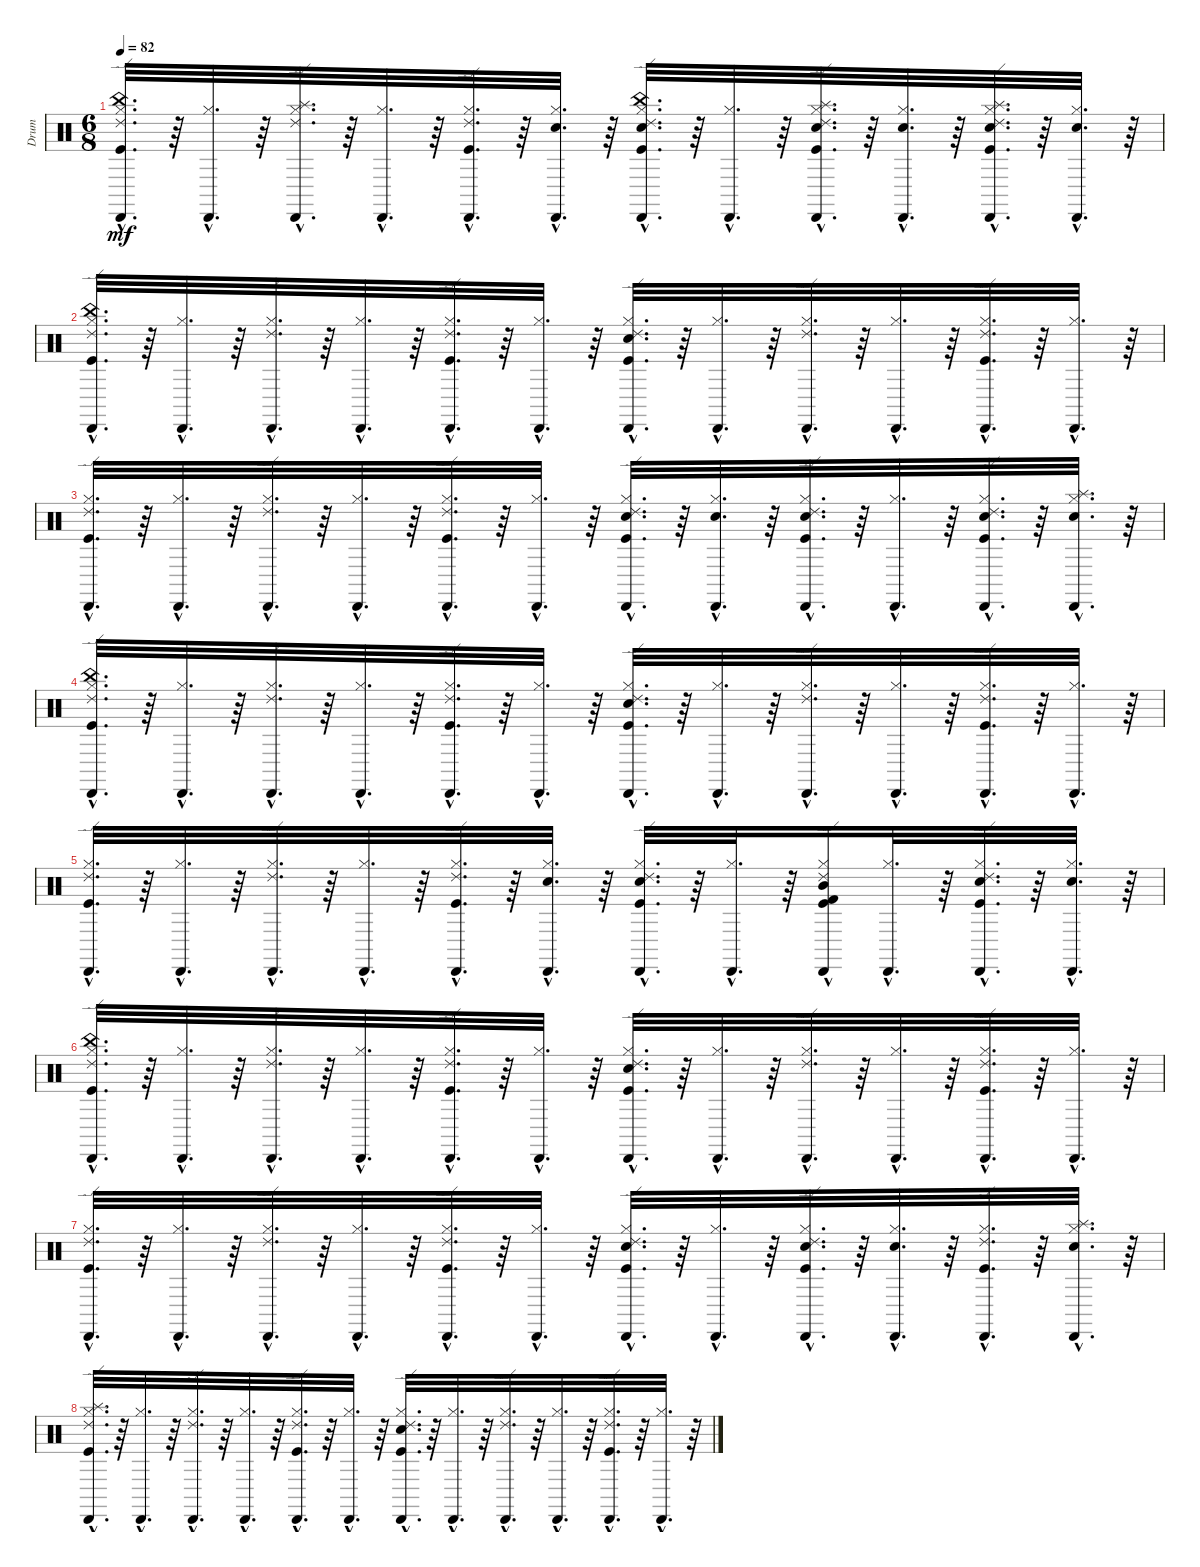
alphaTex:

\track ("Drum" "Drum") {instrument percussion}
\staff {score}
\articulation defaults
\ts (6 8)
\tempo 82
\clef neutral
\ks c
("China (hit)"{hac} "Hi-Hat (closed)"{hac} "Kick (hit)"{hac} "Ride (edge) 2"{hac} "Cabasa (hit)"{hac}).32{d dy mf} r.64 ("Hi-Hat (closed)"{hac} "Cabasa (hit)"{hac}).32{d} r.64 ("Splash (hit)"{hac} "Hi-Hat (closed)"{hac} "Ride (edge) 2"{hac} "Cabasa (hit)"{hac}).32{d} r.64 ("Hi-Hat (closed)"{hac} "Cabasa (hit)"{hac}).32{d} r.64 ("Hi-Hat (closed)"{hac} "Kick (hit)"{hac} "Ride (edge) 2"{hac} "Cabasa (hit)"{hac}).32{d} r.64 ("Hi-Hat (closed)"{hac} "Snare (hit) 2"{hac} "Cabasa (hit)"{hac}).32{d} r.64 ("China (hit)"{hac} "Hi-Hat (closed)"{hac} "Snare (hit) 2"{hac} "Kick (hit)"{hac} "Ride (edge) 2"{hac} "Cabasa (hit)"{hac}).32{d} r.64 ("Hi-Hat (closed)"{hac} "Cabasa (hit)"{hac}).32{d} r.64 ("Splash (hit)"{hac} "Hi-Hat (closed)"{hac} "Snare (hit) 2"{hac} "Kick (hit)"{hac} "Ride (edge) 2"{hac} "Cabasa (hit)"{hac}).32{d} r.64 ("Hi-Hat (closed)"{hac} "Snare (hit) 2"{hac} "Cabasa (hit)"{hac}).32{d} r.64 ("Hi-Hat (closed)"{hac} "Kick (hit)"{hac} "Splash (hit)"{hac} "Snare (hit) 2"{hac} "Ride (edge) 2"{hac} "Cabasa (hit)"{hac}).32{d} r.64 ("Hi-Hat (closed)"{hac} "Snare (hit) 2"{hac} "Cabasa (hit)"{hac}).32{d} r.64 |
("Ride (edge) 2"{hac} "Cabasa (hit)"{hac} "Kick (hit)"{hac} "Hi-Hat (closed)"{hac} "China (hit)"{hac}).32{d} r.64 ("Cabasa (hit)"{hac} "Hi-Hat (closed)"{hac}).32{d} r.64 ("Ride (edge) 2"{hac} "Cabasa (hit)"{hac} "Hi-Hat (closed)"{hac}).32{d} r.64 ("Cabasa (hit)"{hac} "Hi-Hat (closed)"{hac}).32{d} r.64 ("Ride (edge) 2"{hac} "Cabasa (hit)"{hac} "Kick (hit)"{hac} "Hi-Hat (closed)"{hac}).32{d} r.64 ("Cabasa (hit)"{hac} "Hi-Hat (closed)"{hac}).32{d} r.64 ("Ride (edge) 2"{hac} "Cabasa (hit)"{hac} "Snare (hit) 2"{hac} "Hi-Hat (closed)"{hac} "Kick (hit)"{hac}).32{d} r.64 ("Cabasa (hit)"{hac} "Hi-Hat (closed)"{hac}).32{d} r.64 ("Ride (edge) 2"{hac} "Cabasa (hit)"{hac} "Hi-Hat (closed)"{hac}).32{d} r.64 ("Cabasa (hit)"{hac} "Hi-Hat (closed)"{hac}).32{d} r.64 ("Ride (edge) 2"{hac} "Cabasa (hit)"{hac} "Kick (hit)"{hac} "Hi-Hat (closed)"{hac}).32{d} r.64 ("Cabasa (hit)"{hac} "Hi-Hat (closed)"{hac}).32{d} r.64 |
("Cabasa (hit)"{hac} "Ride (edge) 2"{hac} "Hi-Hat (closed)"{hac} "Kick (hit)"{hac}).32{d} r.64 ("Cabasa (hit)"{hac} "Hi-Hat (closed)"{hac}).32{d} r.64 ("Cabasa (hit)"{hac} "Ride (edge) 2"{hac} "Hi-Hat (closed)"{hac}).32{d} r.64 ("Cabasa (hit)"{hac} "Hi-Hat (closed)"{hac}).32{d} r.64 ("Cabasa (hit)"{hac} "Ride (edge) 2"{hac} "Hi-Hat (closed)"{hac} "Kick (hit)"{hac}).32{d} r.64 ("Cabasa (hit)"{hac} "Hi-Hat (closed)"{hac}).32{d} r.64 ("Cabasa (hit)"{hac} "Ride (edge) 2"{hac} "Hi-Hat (closed)"{hac} "Snare (hit) 2"{hac} "Kick (hit)"{hac}).32{d} r.64 ("Cabasa (hit)"{hac} "Snare (hit) 2"{hac} "Hi-Hat (closed)"{hac}).32{d} r.64 ("Cabasa (hit)"{hac} "Ride (edge) 2"{hac} "Hi-Hat (closed)"{hac} "Kick (hit)"{hac} "Snare (hit) 2"{hac}).32{d} r.64 ("Cabasa (hit)"{hac} "Hi-Hat (closed)"{hac}).32{d} r.64 ("Cabasa (hit)"{hac} "Ride (edge) 2"{hac} "Hi-Hat (closed)"{hac} "Snare (hit) 2"{hac} "Kick (hit)"{hac}).32{d} r.64 ("Cabasa (hit)"{hac} "Splash (hit)"{hac} "Hi-Hat (closed)"{hac} "Snare (hit) 2"{hac}).32{d} r.64 |
("Ride (edge) 2"{hac} "Cabasa (hit)"{hac} "Kick (hit)"{hac} "Hi-Hat (closed)"{hac} "China (hit)"{hac}).32{d} r.64 ("Cabasa (hit)"{hac} "Hi-Hat (closed)"{hac}).32{d} r.64 ("Ride (edge) 2"{hac} "Cabasa (hit)"{hac} "Hi-Hat (closed)"{hac}).32{d} r.64 ("Cabasa (hit)"{hac} "Hi-Hat (closed)"{hac}).32{d} r.64 ("Ride (edge) 2"{hac} "Cabasa (hit)"{hac} "Kick (hit)"{hac} "Hi-Hat (closed)"{hac}).32{d} r.64 ("Cabasa (hit)"{hac} "Hi-Hat (closed)"{hac}).32{d} r.64 ("Ride (edge) 2"{hac} "Cabasa (hit)"{hac} "Snare (hit) 2"{hac} "Hi-Hat (closed)"{hac} "Kick (hit)"{hac}).32{d} r.64 ("Cabasa (hit)"{hac} "Hi-Hat (closed)"{hac}).32{d} r.64 ("Ride (edge) 2"{hac} "Cabasa (hit)"{hac} "Hi-Hat (closed)"{hac}).32{d} r.64 ("Cabasa (hit)"{hac} "Hi-Hat (closed)"{hac}).32{d} r.64 ("Ride (edge) 2"{hac} "Cabasa (hit)"{hac} "Kick (hit)"{hac} "Hi-Hat (closed)"{hac}).32{d} r.64 ("Cabasa (hit)"{hac} "Hi-Hat (closed)"{hac}).32{d} r.64 |
("Cabasa (hit)"{hac} "Ride (edge) 2"{hac} "Hi-Hat (closed)"{hac} "Kick (hit)"{hac}).32{d} r.64 ("Cabasa (hit)"{hac} "Hi-Hat (closed)"{hac}).32{d} r.64 ("Cabasa (hit)"{hac} "Ride (edge) 2"{hac} "Hi-Hat (closed)"{hac}).32{d} r.64 ("Cabasa (hit)"{hac} "Hi-Hat (closed)"{hac}).32{d} r.64 ("Cabasa (hit)"{hac} "Ride (edge) 2"{hac} "Hi-Hat (closed)"{hac} "Kick (hit)"{hac}).32{d} r.64 ("Cabasa (hit)"{hac} "Hi-Hat (closed)"{hac} "Snare (hit) 2"{hac}).32{d} r.64 ("Cabasa (hit)"{hac} "Ride (edge) 2"{hac} "Hi-Hat (closed)"{hac} "Snare (hit) 2"{hac} "Kick (hit)"{hac}).32{d} r.64 ("Cabasa (hit)"{hac} "Hi-Hat (closed)"{hac}).32{d} r.64 ("Cabasa (hit)"{hac} "Ride (edge) 2"{hac} "Kick (hit) 2" "Hi-Hat (closed)"{hac} "Mid Tom (hit)"{hac} "Kick (hit)"{hac}).16 ("Cabasa (hit)"{hac} "Hi-Hat (closed)"{hac}).32{d} r.64 ("Cabasa (hit)"{hac} "Ride (edge) 2"{hac} "Hi-Hat (closed)"{hac} "Kick (hit)"{hac} "Snare (hit) 2"{hac}).32{d} r.64 ("Cabasa (hit)"{hac} "Hi-Hat (closed)"{hac} "Snare (hit) 2"{hac}).32{d} r.64 |
("China (hit)"{hac} "Hi-Hat (closed)"{hac} "Kick (hit)"{hac} "Cabasa (hit)"{hac} "Ride (edge) 2"{hac}).32{d} r.64 ("Hi-Hat (closed)"{hac} "Cabasa (hit)"{hac}).32{d} r.64 ("Hi-Hat (closed)"{hac} "Cabasa (hit)"{hac} "Ride (edge) 2"{hac}).32{d} r.64 ("Hi-Hat (closed)"{hac} "Cabasa (hit)"{hac}).32{d} r.64 ("Hi-Hat (closed)"{hac} "Kick (hit)"{hac} "Cabasa (hit)"{hac} "Ride (edge) 2"{hac}).32{d} r.64 ("Hi-Hat (closed)"{hac} "Cabasa (hit)"{hac}).32{d} r.64 ("Kick (hit)"{hac} "Hi-Hat (closed)"{hac} "Snare (hit) 2"{hac} "Cabasa (hit)"{hac} "Ride (edge) 2"{hac}).32{d} r.64 ("Hi-Hat (closed)"{hac} "Cabasa (hit)"{hac}).32{d} r.64 ("Hi-Hat (closed)"{hac} "Cabasa (hit)"{hac} "Ride (edge) 2"{hac}).32{d} r.64 ("Hi-Hat (closed)"{hac} "Cabasa (hit)"{hac}).32{d} r.64 ("Hi-Hat (closed)"{hac} "Kick (hit)"{hac} "Cabasa (hit)"{hac} "Ride (edge) 2"{hac}).32{d} r.64 ("Hi-Hat (closed)"{hac} "Cabasa (hit)"{hac}).32{d} r.64 |
("Ride (edge) 2"{hac} "Cabasa (hit)"{hac} "Kick (hit)"{hac} "Hi-Hat (closed)"{hac}).32{d} r.64 ("Cabasa (hit)"{hac} "Hi-Hat (closed)"{hac}).32{d} r.64 ("Ride (edge) 2"{hac} "Cabasa (hit)"{hac} "Hi-Hat (closed)"{hac}).32{d} r.64 ("Cabasa (hit)"{hac} "Hi-Hat (closed)"{hac}).32{d} r.64 ("Ride (edge) 2"{hac} "Cabasa (hit)"{hac} "Kick (hit)"{hac} "Hi-Hat (closed)"{hac}).32{d} r.64 ("Cabasa (hit)"{hac} "Hi-Hat (closed)"{hac}).32{d} r.64 ("Ride (edge) 2"{hac} "Cabasa (hit)"{hac} "Kick (hit)"{hac} "Snare (hit) 2"{hac} "Hi-Hat (closed)"{hac}).32{d} r.64 ("Cabasa (hit)"{hac} "Hi-Hat (closed)"{hac}).32{d} r.64 ("Ride (edge) 2"{hac} "Cabasa (hit)"{hac} "Snare (hit) 2"{hac} "Kick (hit)"{hac} "Hi-Hat (closed)"{hac}).32{d} r.64 ("Cabasa (hit)"{hac} "Snare (hit) 2"{hac} "Hi-Hat (closed)"{hac}).32{d} r.64 ("Ride (edge) 2"{hac} "Cabasa (hit)"{hac} "Kick (hit)"{hac} "Hi-Hat (closed)"{hac}).32{d} r.64 ("Cabasa (hit)"{hac} "Electric Snare (hit)"{hac} "Splash (hit)"{hac} "Hi-Hat (closed)"{hac}).32{d} r.64 |
("Splash (hit)"{hac} "Hi-Hat (closed)"{hac} "Kick (hit)"{hac} "Cabasa (hit)"{hac} "Ride (edge) 2"{hac}).32{d} r.64 ("Hi-Hat (closed)"{hac} "Cabasa (hit)"{hac}).32{d} r.64 ("Hi-Hat (closed)"{hac} "Cabasa (hit)"{hac} "Ride (edge) 2"{hac}).32{d} r.64 ("Hi-Hat (closed)"{hac} "Cabasa (hit)"{hac}).32{d} r.64 ("Hi-Hat (closed)"{hac} "Kick (hit)"{hac} "Cabasa (hit)"{hac} "Ride (edge) 2"{hac}).32{d} r.64 ("Hi-Hat (closed)"{hac} "Cabasa (hit)"{hac}).32{d} r.64 ("Kick (hit)"{hac} "Hi-Hat (closed)"{hac} "Snare (hit) 2"{hac} "Cabasa (hit)"{hac} "Ride (edge) 2"{hac}).32{d} r.64 ("Hi-Hat (closed)"{hac} "Cabasa (hit)"{hac}).32{d} r.64 ("Hi-Hat (closed)"{hac} "Cabasa (hit)"{hac} "Ride (edge) 2"{hac}).32{d} r.64 ("Hi-Hat (closed)"{hac} "Cabasa (hit)"{hac}).32{d} r.64 ("Hi-Hat (closed)"{hac} "Kick (hit)"{hac} "Cabasa (hit)"{hac} "Ride (edge) 2"{hac}).32{d} r.64 ("Hi-Hat (closed)"{hac} "Cabasa (hit)"{hac}).32{d} r.64
